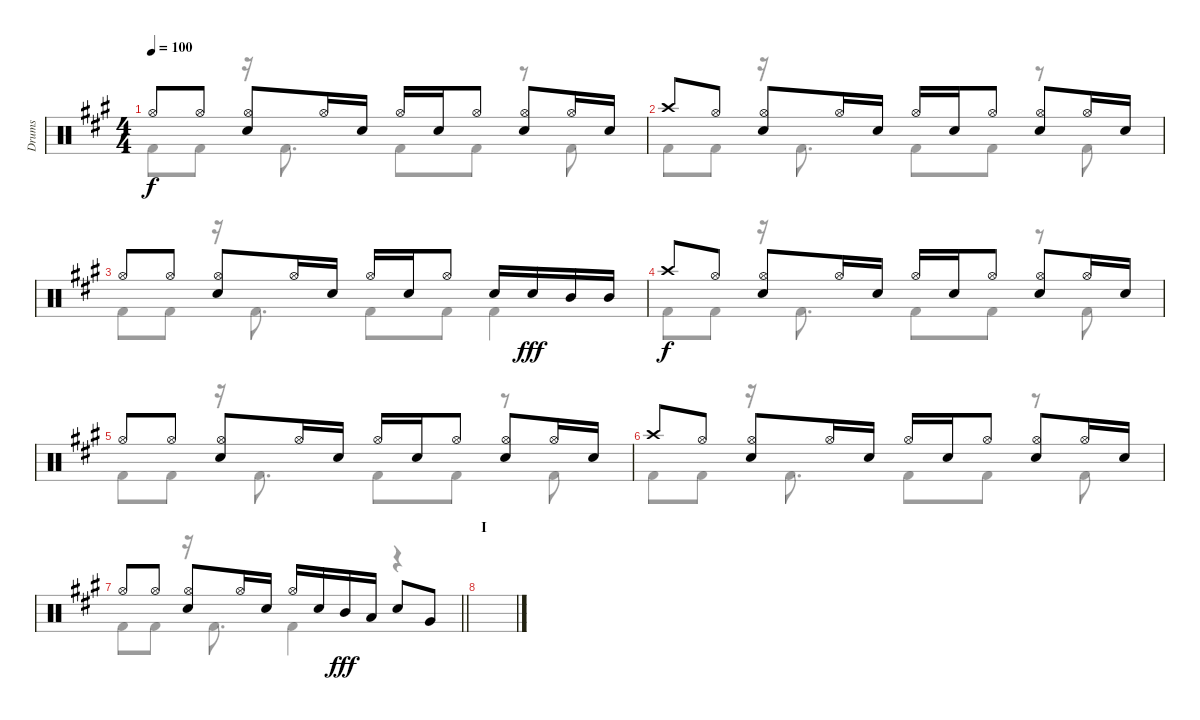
\track ("Drums" "Drums") {instrument percussion}
\staff {score}
\articulation defaults
\voice
\ts (4 4)
\tempo 100
\clef neutral
\ks a "Hi-Hat (open)".8{dy f} "Hi-Hat (open)".8
("Hi-Hat (open)" "Electric Snare (hit)").8 "Hi-Hat (open)".16 "Electric Snare (hit)".16 "Hi-Hat (open)".16 "Electric Snare (hit)".16 "Hi-Hat (open)".8 ("Hi-Hat (open)" "Electric Snare (hit)").8 "Hi-Hat (open)".16 "Electric Snare (hit)".16 |
"Crash high (hit)".8 "Hi-Hat (open)".8 ("Hi-Hat (open)" "Electric Snare (hit)").8 "Hi-Hat (open)".16 "Electric Snare (hit)".16 "Hi-Hat (open)".16 "Electric Snare (hit)".16 "Hi-Hat (open)".8 ("Hi-Hat (open)" "Electric Snare (hit)").8 "Hi-Hat (open)".16 "Electric Snare (hit)".16 |
"Hi-Hat (open)".8 "Hi-Hat (open)".8 ("Hi-Hat (open)" "Electric Snare (hit)").8 "Hi-Hat (open)".16 "Electric Snare (hit)".16 "Hi-Hat (open)".16 "Electric Snare (hit)".16 "Hi-Hat (open)".8 "Electric Snare (hit)".16 "Electric Snare (hit)".16{dy fff} "Mid Tom (hit)".16 "Mid Tom (hit)".16 |
"Crash high (hit)".8{dy f} "Hi-Hat (open)".8 ("Hi-Hat (open)" "Electric Snare (hit)").8 "Hi-Hat (open)".16 "Electric Snare (hit)".16 "Hi-Hat (open)".16 "Electric Snare (hit)".16 "Hi-Hat (open)".8 ("Hi-Hat (open)" "Electric Snare (hit)").8 "Hi-Hat (open)".16 "Electric Snare (hit)".16 |
"Hi-Hat (open)".8 "Hi-Hat (open)".8 ("Hi-Hat (open)" "Electric Snare (hit)").8 "Hi-Hat (open)".16 "Electric Snare (hit)".16 "Hi-Hat (open)".16 "Electric Snare (hit)".16 "Hi-Hat (open)".8 ("Hi-Hat (open)" "Electric Snare (hit)").8 "Hi-Hat (open)".16 "Electric Snare (hit)".16 |
"Crash high (hit)".8 "Hi-Hat (open)".8 ("Hi-Hat (open)" "Electric Snare (hit)").8 "Hi-Hat (open)".16 "Electric Snare (hit)".16 "Hi-Hat (open)".16 "Electric Snare (hit)".16 "Hi-Hat (open)".8 ("Hi-Hat (open)" "Electric Snare (hit)").8 "Hi-Hat (open)".16 "Electric Snare (hit)".16 |
\barLineRight lightlight "Hi-Hat (open)".8 "Hi-Hat (open)".8
("Hi-Hat (open)" "Electric Snare (hit)").8 "Hi-Hat (open)".16 "Electric Snare (hit)".16 "Hi-Hat (open)".16 "Electric Snare (hit)".16 "Mid Tom (hit)".16{dy fff} "Low Tom (hit)".16 "Electric Snare (hit)".8 "Very Low Tom (hit)".8 |
\section ("" "I")
|
|
|
|
|
|
|
\voice
\clef neutral
\ottava regular
\simile none
\ks a "Kick (hit) 2".8{dy f} "Kick (hit) 2".8
r.16 "Kick (hit) 2".8{d} "Kick (hit) 2".8 "Kick (hit) 2".8 r.8 "Kick (hit) 2".8 |
"Kick (hit) 2".8 "Kick (hit) 2".8 r.16 "Kick (hit) 2".8{d} "Kick (hit) 2".8 "Kick (hit) 2".8 r.8 "Kick (hit) 2".8 |
"Kick (hit) 2".8 "Kick (hit) 2".8 r.16 "Kick (hit) 2".8{d} "Kick (hit) 2".8 "Kick (hit) 2".8 "Kick (hit) 2".4 |
"Kick (hit) 2".8 "Kick (hit) 2".8 r.16 "Kick (hit) 2".8{d} "Kick (hit) 2".8 "Kick (hit) 2".8 r.8 "Kick (hit) 2".8 |
"Kick (hit) 2".8 "Kick (hit) 2".8 r.16 "Kick (hit) 2".8{d} "Kick (hit) 2".8 "Kick (hit) 2".8 r.8 "Kick (hit) 2".8 |
"Kick (hit) 2".8 "Kick (hit) 2".8 r.16 "Kick (hit) 2".8{d} "Kick (hit) 2".8 "Kick (hit) 2".8 r.8 "Kick (hit) 2".8 |
\barLineRight lightlight "Kick (hit) 2".8 "Kick (hit) 2".8
r.16 "Kick (hit) 2".8{d} "Kick (hit) 2".4 r.4 |
|
|
|
|
|
|
|
